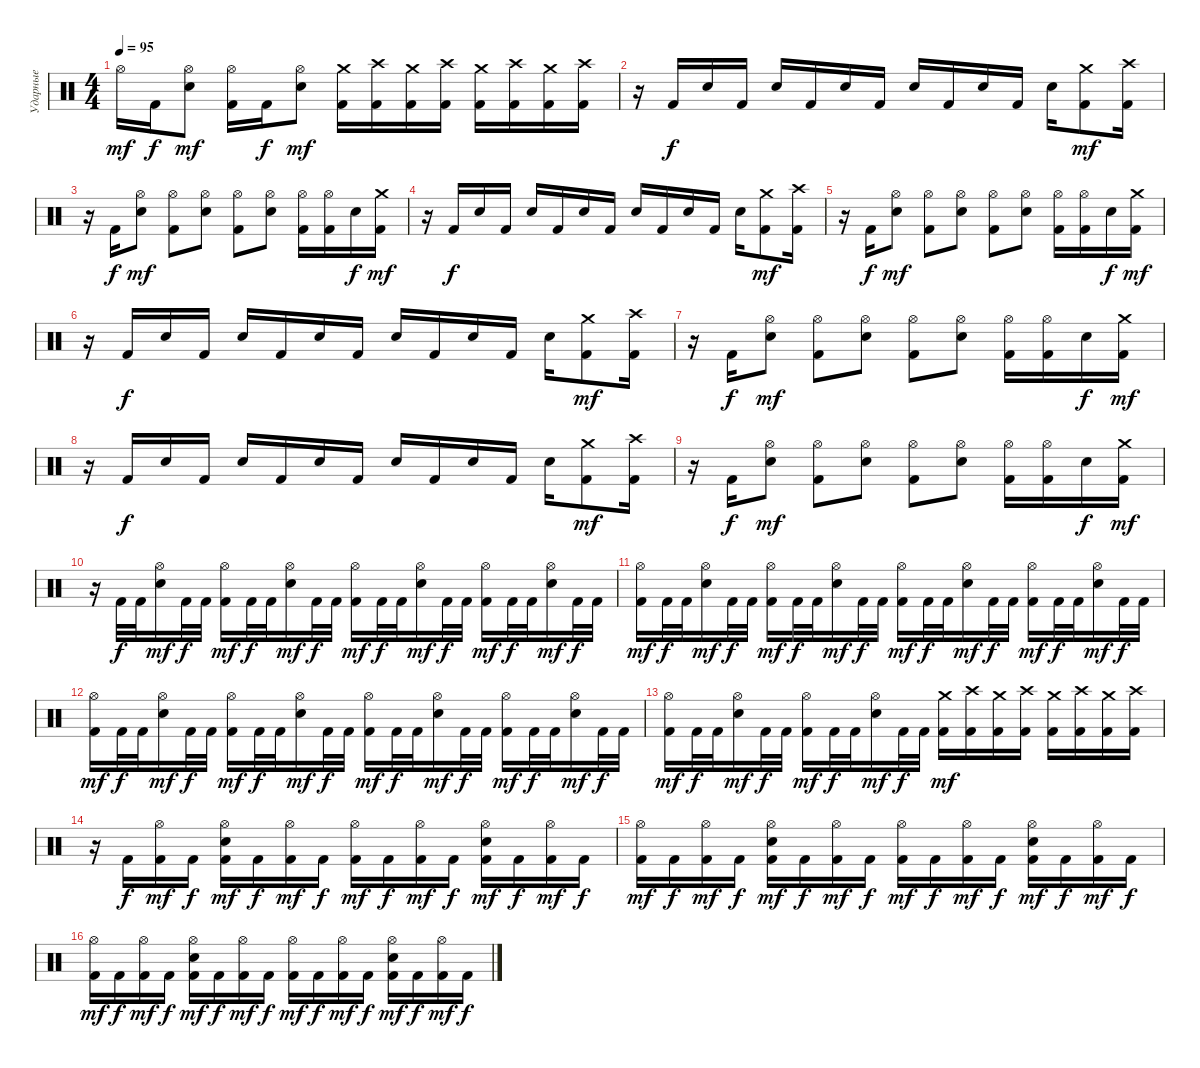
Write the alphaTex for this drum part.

\track ("Ударные" "Ударные") {instrument percussion}
\staff {score}
\articulation defaults
\ts (4 4)
\tempo 95
\clef neutral
\ks c "Hi-Hat (open)".16{dy mf} "Kick (hit) 2".16{dy f}
("Hi-Hat (open)" "Snare (hit) 2").8{dy mf} ("Hi-Hat (open)" "Kick (hit) 2").16 "Kick (hit) 2".16{dy f} ("Hi-Hat (open)" "Snare (hit) 2").8{dy mf} ("Crash medium (hit)" "Kick (hit) 2").16 ("Crash high (hit)" "Kick (hit) 2").16 ("Crash medium (hit)" "Kick (hit) 2").16 ("Crash high (hit)" "Kick (hit) 2").16 ("Crash medium (hit)" "Kick (hit) 2").16 ("Crash high (hit)" "Kick (hit) 2").16 ("Crash medium (hit)" "Kick (hit) 2").16 ("Crash high (hit)" "Kick (hit) 2").16 |
r.16 "Kick (hit) 2".16{dy f} "Snare (hit) 2".16 "Kick (hit) 2".16 "Snare (hit) 2".16 "Kick (hit) 2".16 "Snare (hit) 2".16 "Kick (hit) 2".16 "Snare (hit) 2".16 "Kick (hit) 2".16 "Snare (hit) 2".16 "Kick (hit) 2".16 "Snare (hit) 2".16 ("Crash medium (hit)" "Kick (hit) 2").8{dy mf} ("Crash high (hit)" "Kick (hit) 2").16 |
r.16 "Kick (hit) 2".16{dy f} ("Hi-Hat (open)" "Snare (hit) 2").8{dy mf} ("Hi-Hat (open)" "Kick (hit) 2").8 ("Hi-Hat (open)" "Snare (hit) 2").8 ("Hi-Hat (open)" "Kick (hit) 2").8 ("Hi-Hat (open)" "Snare (hit) 2").8 ("Hi-Hat (open)" "Kick (hit) 2").16 ("Hi-Hat (open)" "Kick (hit) 2").16 "Snare (hit) 2".16{dy f} ("Crash medium (hit)" "Kick (hit) 2").16{dy mf} |
r.16 "Kick (hit) 2".16{dy f} "Snare (hit) 2".16 "Kick (hit) 2".16 "Snare (hit) 2".16 "Kick (hit) 2".16 "Snare (hit) 2".16 "Kick (hit) 2".16 "Snare (hit) 2".16 "Kick (hit) 2".16 "Snare (hit) 2".16 "Kick (hit) 2".16 "Snare (hit) 2".16 ("Crash medium (hit)" "Kick (hit) 2").8{dy mf} ("Crash high (hit)" "Kick (hit) 2").16 |
r.16 "Kick (hit) 2".16{dy f} ("Hi-Hat (open)" "Snare (hit) 2").8{dy mf} ("Hi-Hat (open)" "Kick (hit) 2").8 ("Hi-Hat (open)" "Snare (hit) 2").8 ("Hi-Hat (open)" "Kick (hit) 2").8 ("Hi-Hat (open)" "Snare (hit) 2").8 ("Hi-Hat (open)" "Kick (hit) 2").16 ("Hi-Hat (open)" "Kick (hit) 2").16 "Snare (hit) 2".16{dy f} ("Crash medium (hit)" "Kick (hit) 2").16{dy mf} |
r.16 "Kick (hit) 2".16{dy f} "Snare (hit) 2".16 "Kick (hit) 2".16 "Snare (hit) 2".16 "Kick (hit) 2".16 "Snare (hit) 2".16 "Kick (hit) 2".16 "Snare (hit) 2".16 "Kick (hit) 2".16 "Snare (hit) 2".16 "Kick (hit) 2".16 "Snare (hit) 2".16 ("Crash medium (hit)" "Kick (hit) 2").8{dy mf} ("Crash high (hit)" "Kick (hit) 2").16 |
r.16 "Kick (hit) 2".16{dy f} ("Hi-Hat (open)" "Snare (hit) 2").8{dy mf} ("Hi-Hat (open)" "Kick (hit) 2").8 ("Hi-Hat (open)" "Snare (hit) 2").8 ("Hi-Hat (open)" "Kick (hit) 2").8 ("Hi-Hat (open)" "Snare (hit) 2").8 ("Hi-Hat (open)" "Kick (hit) 2").16 ("Hi-Hat (open)" "Kick (hit) 2").16 "Snare (hit) 2".16{dy f} ("Crash medium (hit)" "Kick (hit) 2").16{dy mf} |
r.16 "Kick (hit) 2".16{dy f} "Snare (hit) 2".16 "Kick (hit) 2".16 "Snare (hit) 2".16 "Kick (hit) 2".16 "Snare (hit) 2".16 "Kick (hit) 2".16 "Snare (hit) 2".16 "Kick (hit) 2".16 "Snare (hit) 2".16 "Kick (hit) 2".16 "Snare (hit) 2".16 ("Crash medium (hit)" "Kick (hit) 2").8{dy mf} ("Crash high (hit)" "Kick (hit) 2").16 |
r.16 "Kick (hit) 2".16{dy f} ("Hi-Hat (open)" "Snare (hit) 2").8{dy mf} ("Hi-Hat (open)" "Kick (hit) 2").8 ("Hi-Hat (open)" "Snare (hit) 2").8 ("Hi-Hat (open)" "Kick (hit) 2").8 ("Hi-Hat (open)" "Snare (hit) 2").8 ("Hi-Hat (open)" "Kick (hit) 2").16 ("Hi-Hat (open)" "Kick (hit) 2").16 "Snare (hit) 2".16{dy f} ("Crash medium (hit)" "Kick (hit) 2").16{dy mf} |
r.16 "Kick (hit) 2".32{dy f} "Kick (hit) 2".32 ("Hi-Hat (open)" "Snare (hit) 2").16{dy mf} "Kick (hit) 2".32{dy f} "Kick (hit) 2".32 ("Hi-Hat (open)" "Kick (hit) 2").16{dy mf} "Kick (hit) 2".32{dy f} "Kick (hit) 2".32 ("Hi-Hat (open)" "Snare (hit) 2").16{dy mf} "Kick (hit) 2".32{dy f} "Kick (hit) 2".32 ("Hi-Hat (open)" "Kick (hit) 2").16{dy mf} "Kick (hit) 2".32{dy f} "Kick (hit) 2".32 ("Hi-Hat (open)" "Snare (hit) 2").16{dy mf} "Kick (hit) 2".32{dy f} "Kick (hit) 2".32 ("Hi-Hat (open)" "Kick (hit) 2").16{dy mf} "Kick (hit) 2".32{dy f} "Kick (hit) 2".32 ("Hi-Hat (open)" "Snare (hit) 2").16{dy mf} "Kick (hit) 2".32{dy f} "Kick (hit) 2".32 |
("Hi-Hat (open)" "Kick (hit) 2").16{dy mf} "Kick (hit) 2".32{dy f} "Kick (hit) 2".32 ("Hi-Hat (open)" "Snare (hit) 2").16{dy mf} "Kick (hit) 2".32{dy f} "Kick (hit) 2".32 ("Hi-Hat (open)" "Kick (hit) 2").16{dy mf} "Kick (hit) 2".32{dy f} "Kick (hit) 2".32 ("Hi-Hat (open)" "Snare (hit) 2").16{dy mf} "Kick (hit) 2".32{dy f} "Kick (hit) 2".32 ("Hi-Hat (open)" "Kick (hit) 2").16{dy mf} "Kick (hit) 2".32{dy f} "Kick (hit) 2".32 ("Hi-Hat (open)" "Snare (hit) 2").16{dy mf} "Kick (hit) 2".32{dy f} "Kick (hit) 2".32 ("Hi-Hat (open)" "Kick (hit) 2").16{dy mf} "Kick (hit) 2".32{dy f} "Kick (hit) 2".32 ("Hi-Hat (open)" "Snare (hit) 2").16{dy mf} "Kick (hit) 2".32{dy f} "Kick (hit) 2".32 |
("Hi-Hat (open)" "Kick (hit) 2").16{dy mf} "Kick (hit) 2".32{dy f} "Kick (hit) 2".32 ("Hi-Hat (open)" "Snare (hit) 2").16{dy mf} "Kick (hit) 2".32{dy f} "Kick (hit) 2".32 ("Hi-Hat (open)" "Kick (hit) 2").16{dy mf} "Kick (hit) 2".32{dy f} "Kick (hit) 2".32 ("Hi-Hat (open)" "Snare (hit) 2").16{dy mf} "Kick (hit) 2".32{dy f} "Kick (hit) 2".32 ("Hi-Hat (open)" "Kick (hit) 2").16{dy mf} "Kick (hit) 2".32{dy f} "Kick (hit) 2".32 ("Hi-Hat (open)" "Snare (hit) 2").16{dy mf} "Kick (hit) 2".32{dy f} "Kick (hit) 2".32 ("Hi-Hat (open)" "Kick (hit) 2").16{dy mf} "Kick (hit) 2".32{dy f} "Kick (hit) 2".32 ("Hi-Hat (open)" "Snare (hit) 2").16{dy mf} "Kick (hit) 2".32{dy f} "Kick (hit) 2".32 |
("Hi-Hat (open)" "Kick (hit) 2").16{dy mf} "Kick (hit) 2".32{dy f} "Kick (hit) 2".32 ("Hi-Hat (open)" "Snare (hit) 2").16{dy mf} "Kick (hit) 2".32{dy f} "Kick (hit) 2".32 ("Hi-Hat (open)" "Kick (hit) 2").16{dy mf} "Kick (hit) 2".32{dy f} "Kick (hit) 2".32 ("Hi-Hat (open)" "Snare (hit) 2").16{dy mf} "Kick (hit) 2".32{dy f} "Kick (hit) 2".32 ("Crash medium (hit)" "Kick (hit) 2").16{dy mf} ("Crash high (hit)" "Kick (hit) 2").16 ("Crash medium (hit)" "Kick (hit) 2").16 ("Crash high (hit)" "Kick (hit) 2").16 ("Crash medium (hit)" "Kick (hit) 2").16 ("Crash high (hit)" "Kick (hit) 2").16 ("Crash medium (hit)" "Kick (hit) 2").16 ("Crash high (hit)" "Kick (hit) 2").16 |
r.16 "Kick (hit) 2".16{dy f} ("Hi-Hat (open)" "Kick (hit) 2").16{dy mf} "Kick (hit) 2".16{dy f} ("Hi-Hat (open)" "Kick (hit) 2" "Snare (hit) 2").16{dy mf} "Kick (hit) 2".16{dy f} ("Hi-Hat (open)" "Kick (hit) 2").16{dy mf} "Kick (hit) 2".16{dy f} ("Hi-Hat (open)" "Kick (hit) 2").16{dy mf} "Kick (hit) 2".16{dy f} ("Hi-Hat (open)" "Kick (hit) 2").16{dy mf} "Kick (hit) 2".16{dy f} ("Hi-Hat (open)" "Kick (hit) 2" "Snare (hit) 2").16{dy mf} "Kick (hit) 2".16{dy f} ("Hi-Hat (open)" "Kick (hit) 2").16{dy mf} "Kick (hit) 2".16{dy f} |
("Hi-Hat (open)" "Kick (hit) 2").16{dy mf} "Kick (hit) 2".16{dy f} ("Hi-Hat (open)" "Kick (hit) 2").16{dy mf} "Kick (hit) 2".16{dy f} ("Hi-Hat (open)" "Kick (hit) 2" "Snare (hit) 2").16{dy mf} "Kick (hit) 2".16{dy f} ("Hi-Hat (open)" "Kick (hit) 2").16{dy mf} "Kick (hit) 2".16{dy f} ("Hi-Hat (open)" "Kick (hit) 2").16{dy mf} "Kick (hit) 2".16{dy f} ("Hi-Hat (open)" "Kick (hit) 2").16{dy mf} "Kick (hit) 2".16{dy f} ("Hi-Hat (open)" "Kick (hit) 2" "Snare (hit) 2").16{dy mf} "Kick (hit) 2".16{dy f} ("Hi-Hat (open)" "Kick (hit) 2").16{dy mf} "Kick (hit) 2".16{dy f} |
("Hi-Hat (open)" "Kick (hit) 2").16{dy mf} "Kick (hit) 2".16{dy f} ("Hi-Hat (open)" "Kick (hit) 2").16{dy mf} "Kick (hit) 2".16{dy f} ("Hi-Hat (open)" "Kick (hit) 2" "Snare (hit) 2").16{dy mf} "Kick (hit) 2".16{dy f} ("Hi-Hat (open)" "Kick (hit) 2").16{dy mf} "Kick (hit) 2".16{dy f} ("Hi-Hat (open)" "Kick (hit) 2").16{dy mf} "Kick (hit) 2".16{dy f} ("Hi-Hat (open)" "Kick (hit) 2").16{dy mf} "Kick (hit) 2".16{dy f} ("Hi-Hat (open)" "Kick (hit) 2" "Snare (hit) 2").16{dy mf} "Kick (hit) 2".16{dy f} ("Hi-Hat (open)" "Kick (hit) 2").16{dy mf} "Kick (hit) 2".16{dy f}
